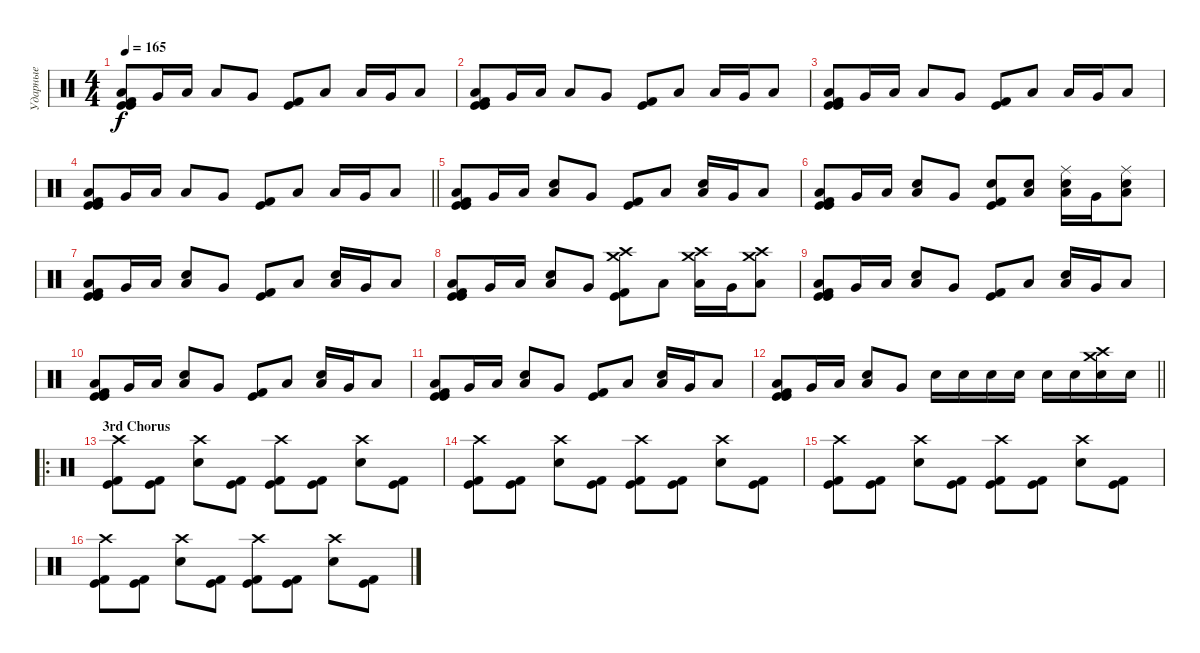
\track ("Ударные" "Ударные") {instrument percussion}
\staff {score}
\articulation defaults
\ts (4 4)
\tempo 165
\clef neutral
\ks c
("Kick (hit)" "Low Floor Tom (hit)" "Kick (hit)" "Kick (hit) 2").8{dy f} "Very Low Tom (hit)".16 "Low Floor Tom (hit)".16 "Low Floor Tom (hit)".8 "Very Low Tom (hit)".8 ("Kick (hit)" "Kick (hit) 2").8 "Low Floor Tom (hit)".8 "Low Floor Tom (hit)".16 "Very Low Tom (hit)".16 "Low Floor Tom (hit)".8 |
("Kick (hit)" "Low Floor Tom (hit)" "Kick (hit)" "Kick (hit) 2").8 "Very Low Tom (hit)".16 "Low Floor Tom (hit)".16 "Low Floor Tom (hit)".8 "Very Low Tom (hit)".8 ("Kick (hit)" "Kick (hit) 2").8 "Low Floor Tom (hit)".8 "Low Floor Tom (hit)".16 "Very Low Tom (hit)".16 "Low Floor Tom (hit)".8 |
("Kick (hit)" "Low Floor Tom (hit)" "Kick (hit)" "Kick (hit) 2").8 "Very Low Tom (hit)".16 "Low Floor Tom (hit)".16 "Low Floor Tom (hit)".8 "Very Low Tom (hit)".8 ("Kick (hit)" "Kick (hit) 2").8 "Low Floor Tom (hit)".8 "Low Floor Tom (hit)".16 "Very Low Tom (hit)".16 "Low Floor Tom (hit)".8 |
\barLineRight lightlight
("Kick (hit)" "Low Floor Tom (hit)" "Kick (hit)" "Kick (hit) 2").8 "Very Low Tom (hit)".16 "Low Floor Tom (hit)".16 "Low Floor Tom (hit)".8 "Very Low Tom (hit)".8 ("Kick (hit)" "Kick (hit) 2").8 "Low Floor Tom (hit)".8 "Low Floor Tom (hit)".16 "Very Low Tom (hit)".16 "Low Floor Tom (hit)".8 |
("Kick (hit)" "Low Floor Tom (hit)" "Kick (hit)" "Kick (hit) 2").8 "Very Low Tom (hit)".16 "Low Floor Tom (hit)".16 ("Low Floor Tom (hit)" "Electric Snare (hit)").8 "Very Low Tom (hit)".8 ("Kick (hit)" "Kick (hit) 2").8 "Low Floor Tom (hit)".8 ("Low Floor Tom (hit)" "Electric Snare (hit)").16 "Very Low Tom (hit)".16 "Low Floor Tom (hit)".8 |
("Kick (hit)" "Low Floor Tom (hit)" "Kick (hit)" "Kick (hit) 2").8 "Very Low Tom (hit)".16 "Low Floor Tom (hit)".16 ("Low Floor Tom (hit)" "Electric Snare (hit)").8 "Very Low Tom (hit)".8 ("Electric Snare (hit)" "Kick (hit)" "Kick (hit) 2").8 ("Low Floor Tom (hit)" "Electric Snare (hit)").8 ("Low Floor Tom (hit)" "Ride (middle)" "Electric Snare (hit)").16 "Very Low Tom (hit)".16 ("Low Floor Tom (hit)" "Ride (middle)" "Electric Snare (hit)").8 |
("Kick (hit)" "Low Floor Tom (hit)" "Kick (hit)" "Kick (hit) 2").8 "Very Low Tom (hit)".16 "Low Floor Tom (hit)".16 ("Low Floor Tom (hit)" "Electric Snare (hit)").8 "Very Low Tom (hit)".8 ("Kick (hit)" "Kick (hit) 2").8 "Low Floor Tom (hit)".8 ("Low Floor Tom (hit)" "Electric Snare (hit)").16 "Very Low Tom (hit)".16 "Low Floor Tom (hit)".8 |
("Kick (hit)" "Low Floor Tom (hit)" "Kick (hit)" "Kick (hit) 2").8 "Very Low Tom (hit)".16 "Low Floor Tom (hit)".16 ("Low Floor Tom (hit)" "Electric Snare (hit)").8 "Very Low Tom (hit)".8 ("Crash medium (hit)" "Crash high (hit)" "Kick (hit)" "Kick (hit) 2").8 "Low Floor Tom (hit)".8 ("Low Floor Tom (hit)" "Crash medium (hit)" "Crash high (hit)").16 "Very Low Tom (hit)".16 ("Low Floor Tom (hit)" "Crash medium (hit)" "Crash high (hit)").8 |
("Kick (hit)" "Low Floor Tom (hit)" "Kick (hit)" "Kick (hit) 2").8 "Very Low Tom (hit)".16 "Low Floor Tom (hit)".16 ("Low Floor Tom (hit)" "Electric Snare (hit)").8 "Very Low Tom (hit)".8 ("Kick (hit)" "Kick (hit) 2").8 "Low Floor Tom (hit)".8 ("Low Floor Tom (hit)" "Electric Snare (hit)").16 "Very Low Tom (hit)".16 "Low Floor Tom (hit)".8 |
("Kick (hit)" "Low Floor Tom (hit)" "Kick (hit)" "Kick (hit) 2").8 "Very Low Tom (hit)".16 "Low Floor Tom (hit)".16 ("Low Floor Tom (hit)" "Electric Snare (hit)").8 "Very Low Tom (hit)".8 ("Kick (hit)" "Kick (hit) 2").8 "Low Floor Tom (hit)".8 ("Low Floor Tom (hit)" "Electric Snare (hit)").16 "Very Low Tom (hit)".16 "Low Floor Tom (hit)".8 |
("Kick (hit)" "Low Floor Tom (hit)" "Kick (hit)" "Kick (hit) 2").8 "Very Low Tom (hit)".16 "Low Floor Tom (hit)".16 ("Low Floor Tom (hit)" "Electric Snare (hit)").8 "Very Low Tom (hit)".8 ("Kick (hit)" "Kick (hit) 2").8 "Low Floor Tom (hit)".8 ("Low Floor Tom (hit)" "Electric Snare (hit)").16 "Very Low Tom (hit)".16 "Low Floor Tom (hit)".8 |
\barLineRight lightlight
("Kick (hit)" "Low Floor Tom (hit)" "Kick (hit)" "Kick (hit) 2").8 "Very Low Tom (hit)".16 "Low Floor Tom (hit)".16 ("Low Floor Tom (hit)" "Electric Snare (hit)").8 "Very Low Tom (hit)".8 "Electric Snare (hit)".16 "Electric Snare (hit)".16 "Electric Snare (hit)".16 "Electric Snare (hit)".16 "Electric Snare (hit)".16 "Electric Snare (hit)".16 ("Crash high (hit)" "Crash medium (hit)" "Electric Snare (hit)").16 "Electric Snare (hit)".16 |
\ro
\section ("" "3rd Chorus")
("Crash high (hit)" "Kick (hit)" "Kick (hit) 2").8 ("Kick (hit)" "Kick (hit) 2").8 ("Crash high (hit)" "Electric Snare (hit)").8 ("Kick (hit)" "Kick (hit) 2").8 ("Crash high (hit)" "Kick (hit)" "Kick (hit) 2").8 ("Kick (hit)" "Kick (hit) 2").8 ("Crash high (hit)" "Electric Snare (hit)").8 ("Kick (hit)" "Kick (hit) 2").8 |
("Crash high (hit)" "Kick (hit)" "Kick (hit) 2").8 ("Kick (hit)" "Kick (hit) 2").8 ("Crash high (hit)" "Electric Snare (hit)").8 ("Kick (hit)" "Kick (hit) 2").8 ("Crash high (hit)" "Kick (hit)" "Kick (hit) 2").8 ("Kick (hit)" "Kick (hit) 2").8 ("Crash high (hit)" "Electric Snare (hit)").8 ("Kick (hit)" "Kick (hit) 2").8 |
("Crash high (hit)" "Kick (hit)" "Kick (hit) 2").8 ("Kick (hit)" "Kick (hit) 2").8 ("Crash high (hit)" "Electric Snare (hit)").8 ("Kick (hit)" "Kick (hit) 2").8 ("Crash high (hit)" "Kick (hit)" "Kick (hit) 2").8 ("Kick (hit)" "Kick (hit) 2").8 ("Crash high (hit)" "Electric Snare (hit)").8 ("Kick (hit)" "Kick (hit) 2").8 |
("Crash high (hit)" "Kick (hit)" "Kick (hit) 2").8 ("Kick (hit)" "Kick (hit) 2").8 ("Crash high (hit)" "Electric Snare (hit)").8 ("Kick (hit)" "Kick (hit) 2").8 ("Crash high (hit)" "Kick (hit)" "Kick (hit) 2").8 ("Kick (hit)" "Kick (hit) 2").8 ("Crash high (hit)" "Electric Snare (hit)").8 ("Kick (hit)" "Kick (hit) 2").8
